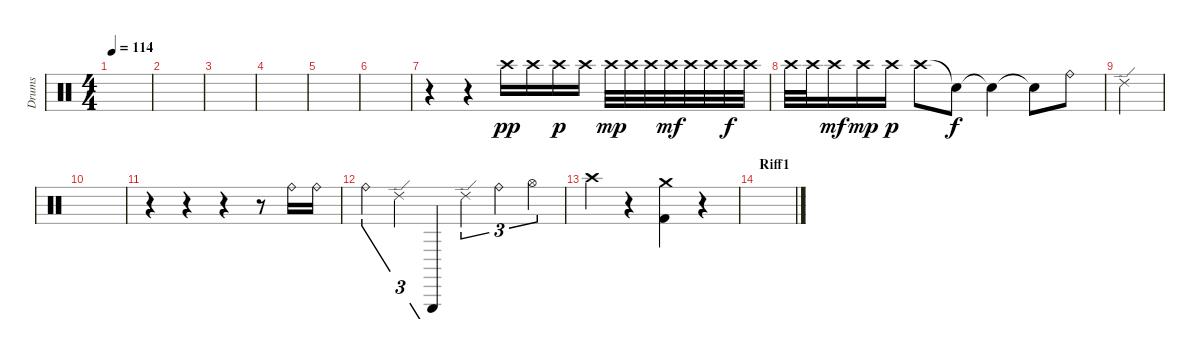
\track ("Drums" "Drums") {instrument percussion}
\staff {score}
\articulation defaults
\ts (4 4)
\tempo 114
\clef neutral
\ks c
|
|
|
|
|
|
r.4 r.4 "Crash high (hit)".16{dy pp} "Crash high (hit)".16 "Crash high (hit)".16{dy p} "Crash high (hit)".16 "Crash high (hit)".32{dy mp} "Crash high (hit)".32 "Crash high (hit)".32 "Crash high (hit)".32{dy mf} "Crash high (hit)".32 "Crash high (hit)".32 "Crash high (hit)".32{dy f} "Crash high (hit)".32 |
"Crash high (hit)".32 "Crash high (hit)".32 "Crash high (hit)".16{dy mf} "Crash high (hit)".16{dy mp} "Crash high (hit)".16{dy p} "Crash high (hit)".8 "Snare (hit)"{t}.8{dy f} "Snare (hit)"{t}.4 "Snare (hit)"{t}.8 "Ride (bell)".8 |
"Ride (edge) 2".4 |
|
r.4 r.4 r.4 r.8 "Ride (bell)".16 "Ride (bell)".16 |
"Ride (bell)".4{tu (3 2)} "Ride (edge) 2".4{tu (3 2)} "Triangle (hit)".4{tu (3 2)} "Ride (edge) 2".4{tu (3 2)} "Ride (bell)".4{tu (3 2)} "Hi-Hat (open)".4{tu (3 2)} |
"Crash high (hit)".4 r.4 ("Kick (hit) 2" "Crash medium (hit)").4 r.4 |
\section ("" "Riff1")
